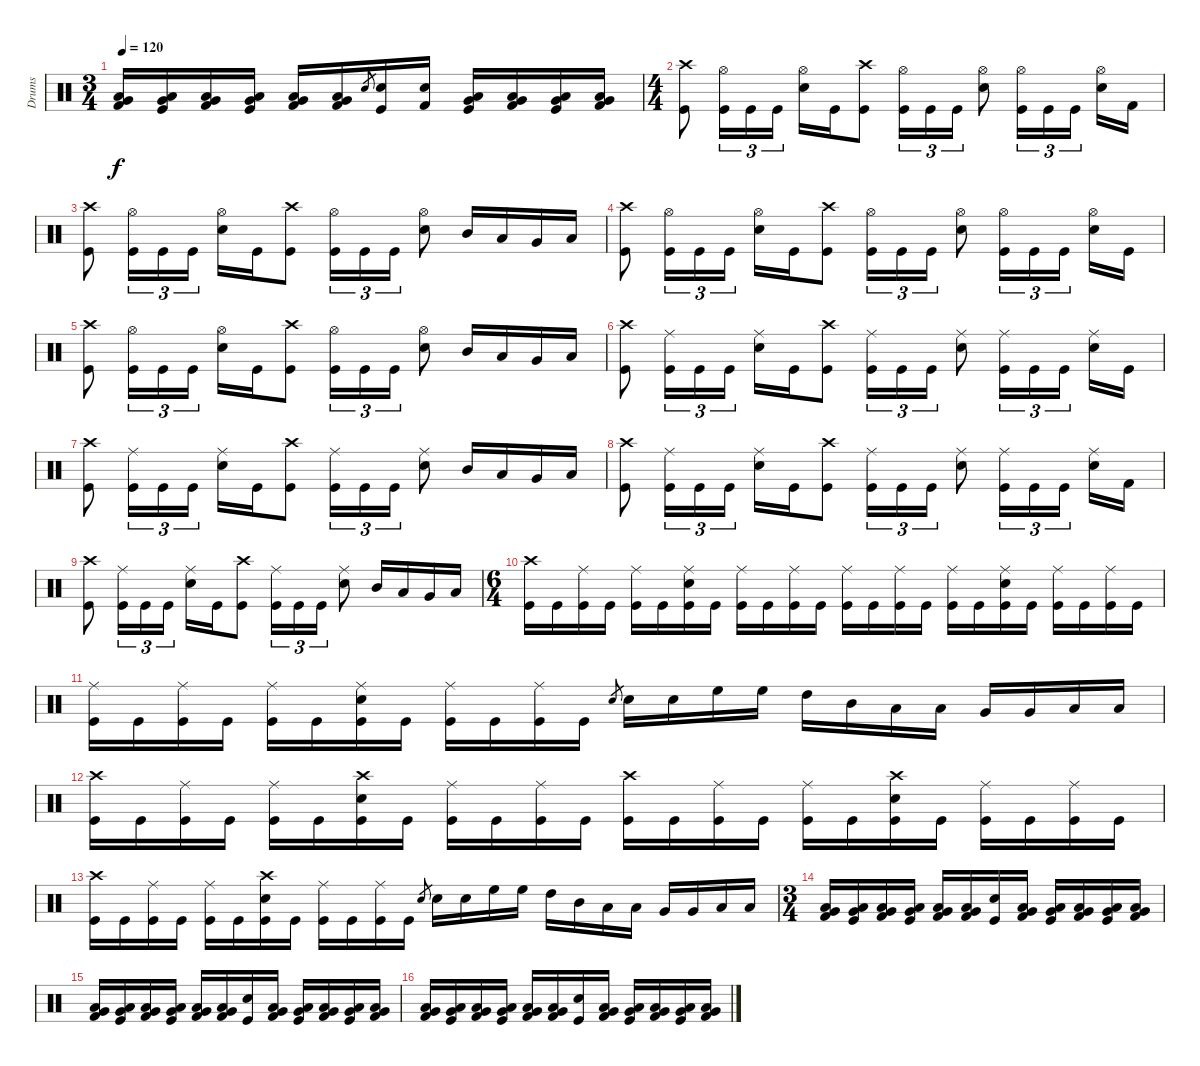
\track ("Drums" "Drums") {instrument percussion}
\staff {score}
\articulation defaults
\ts (3 4)
\tempo 120
\clef neutral
\ks c
("Kick (hit) 2" "Very Low Tom (hit)" "Low Floor Tom (hit)").16{dy f} ("Kick (hit)" "Low Tom (hit)" "Very Low Tom (hit)").16 ("Kick (hit) 2" "Very Low Tom (hit)" "Low Floor Tom (hit)").16 ("Kick (hit)" "Low Tom (hit)" "Very Low Tom (hit)").16 ("Kick (hit) 2" "Very Low Tom (hit)" "Low Floor Tom (hit)").16 ("Kick (hit) 2" "Low Tom (hit)" "Very Low Tom (hit)").16 "Electric Snare (hit)".8{gr} ("Kick (hit)" "Electric Snare (hit)").16 ("Kick (hit) 2" "Electric Snare (hit)").16 ("Kick (hit)" "Very Low Tom (hit)" "Low Floor Tom (hit)").16 ("Kick (hit) 2" "Low Tom (hit)" "Very Low Tom (hit)").16 ("Kick (hit)" "Very Low Tom (hit)" "Low Floor Tom (hit)").16 ("Kick (hit) 2" "Low Tom (hit)" "Very Low Tom (hit)").16 |
\ts (4 4)
("Kick (hit)" "Crash high (hit)").8 ("Kick (hit)" "Hi-Hat (open)").16{tu (3 2)} "Kick (hit)".16{tu (3 2)} "Kick (hit)".16{tu (3 2)} ("Hi-Hat (open)" "Electric Snare (hit)").16 "Kick (hit)".16 ("Kick (hit)" "Crash high (hit)").8 ("Kick (hit)" "Hi-Hat (open)").16{tu (3 2)} "Kick (hit)".16{tu (3 2)} "Kick (hit)".16{tu (3 2)} ("Hi-Hat (open)" "Electric Snare (hit)").8 ("Kick (hit)" "Hi-Hat (open)").16{tu (3 2)} "Kick (hit)".16{tu (3 2)} "Kick (hit)".16{tu (3 2)} ("Hi-Hat (open)" "Electric Snare (hit)").16 "Kick (hit) 2".16 |
("Kick (hit)" "Crash high (hit)").8 ("Kick (hit)" "Hi-Hat (open)").16{tu (3 2)} "Kick (hit)".16{tu (3 2)} "Kick (hit)".16{tu (3 2)} ("Hi-Hat (open)" "Electric Snare (hit)").16 "Kick (hit)".16 ("Kick (hit)" "Crash high (hit)").8 ("Kick (hit)" "Hi-Hat (open)").16{tu (3 2)} "Kick (hit)".16{tu (3 2)} "Kick (hit)".16{tu (3 2)} ("Hi-Hat (open)" "Electric Snare (hit)").8 "Mid Tom (hit)".16 "Low Tom (hit)".16 "Very Low Tom (hit)".16 "Low Floor Tom (hit)".16 |
("Kick (hit)" "Crash high (hit)").8 ("Kick (hit)" "Hi-Hat (open)").16{tu (3 2)} "Kick (hit)".16{tu (3 2)} "Kick (hit)".16{tu (3 2)} ("Hi-Hat (open)" "Electric Snare (hit)").16 "Kick (hit)".16 ("Kick (hit)" "Crash high (hit)").8 ("Kick (hit)" "Hi-Hat (open)").16{tu (3 2)} "Kick (hit)".16{tu (3 2)} "Kick (hit)".16{tu (3 2)} ("Hi-Hat (open)" "Electric Snare (hit)").8 ("Kick (hit)" "Hi-Hat (open)").16{tu (3 2)} "Kick (hit)".16{tu (3 2)} "Kick (hit)".16{tu (3 2)} ("Hi-Hat (open)" "Electric Snare (hit)").16 "Kick (hit)".16 |
("Kick (hit)" "Crash high (hit)").8 ("Kick (hit)" "Hi-Hat (open)").16{tu (3 2)} "Kick (hit)".16{tu (3 2)} "Kick (hit)".16{tu (3 2)} ("Hi-Hat (open)" "Electric Snare (hit)").16 "Kick (hit)".16 ("Kick (hit)" "Crash high (hit)").8 ("Kick (hit)" "Hi-Hat (open)").16{tu (3 2)} "Kick (hit)".16{tu (3 2)} "Kick (hit)".16{tu (3 2)} ("Hi-Hat (open)" "Electric Snare (hit)").8 "Mid Tom (hit)".16 "Low Tom (hit)".16 "Very Low Tom (hit)".16 "Low Floor Tom (hit)".16 |
("Kick (hit)" "Crash high (hit)").8 ("Kick (hit)" "Ride (middle)").16{tu (3 2)} "Kick (hit)".16{tu (3 2)} "Kick (hit)".16{tu (3 2)} ("Ride (middle)" "Electric Snare (hit)").16 "Kick (hit)".16 ("Kick (hit)" "Crash high (hit)").8 ("Kick (hit)" "Ride (middle)").16{tu (3 2)} "Kick (hit)".16{tu (3 2)} "Kick (hit)".16{tu (3 2)} ("Ride (middle)" "Electric Snare (hit)").8 ("Kick (hit)" "Ride (middle)").16{tu (3 2)} "Kick (hit)".16{tu (3 2)} "Kick (hit)".16{tu (3 2)} ("Ride (middle)" "Electric Snare (hit)").16 "Kick (hit)".16 |
("Kick (hit)" "Crash high (hit)").8 ("Kick (hit)" "Ride (middle)").16{tu (3 2)} "Kick (hit)".16{tu (3 2)} "Kick (hit)".16{tu (3 2)} ("Ride (middle)" "Electric Snare (hit)").16 "Kick (hit)".16 ("Kick (hit)" "Crash high (hit)").8 ("Kick (hit)" "Ride (middle)").16{tu (3 2)} "Kick (hit)".16{tu (3 2)} "Kick (hit)".16{tu (3 2)} ("Ride (middle)" "Electric Snare (hit)").8 "Mid Tom (hit)".16 "Low Tom (hit)".16 "Very Low Tom (hit)".16 "Low Floor Tom (hit)".16 |
("Kick (hit)" "Crash high (hit)").8 ("Kick (hit)" "Ride (middle)").16{tu (3 2)} "Kick (hit)".16{tu (3 2)} "Kick (hit)".16{tu (3 2)} ("Ride (middle)" "Electric Snare (hit)").16 "Kick (hit)".16 ("Kick (hit)" "Crash high (hit)").8 ("Kick (hit)" "Ride (middle)").16{tu (3 2)} "Kick (hit)".16{tu (3 2)} "Kick (hit)".16{tu (3 2)} ("Ride (middle)" "Electric Snare (hit)").8 ("Kick (hit)" "Ride (middle)").16{tu (3 2)} "Kick (hit)".16{tu (3 2)} "Kick (hit)".16{tu (3 2)} ("Ride (middle)" "Electric Snare (hit)").16 "Kick (hit) 2".16 |
("Kick (hit)" "Crash high (hit)").8 ("Kick (hit)" "Ride (middle)").16{tu (3 2)} "Kick (hit)".16{tu (3 2)} "Kick (hit)".16{tu (3 2)} ("Ride (middle)" "Electric Snare (hit)").16 "Kick (hit)".16 ("Kick (hit)" "Crash high (hit)").8 ("Kick (hit)" "Ride (middle)").16{tu (3 2)} "Kick (hit)".16{tu (3 2)} "Kick (hit)".16{tu (3 2)} ("Ride (middle)" "Electric Snare (hit)").8 "Mid Tom (hit)".16 "Low Tom (hit)".16 "Very Low Tom (hit)".16 "Low Floor Tom (hit)".16 |
\ts (6 4)
("Kick (hit)" "Crash high (hit)").16 "Kick (hit)".16 ("Kick (hit)" "Ride (middle)").16 "Kick (hit)".16 ("Kick (hit)" "Ride (middle)").16 "Kick (hit)".16 ("Kick (hit)" "Ride (middle)" "Electric Snare (hit)").16 "Kick (hit)".16 ("Kick (hit)" "Ride (middle)").16 "Kick (hit)".16 ("Kick (hit)" "Ride (middle)").16 "Kick (hit)".16 ("Kick (hit)" "Ride (middle)").16 "Kick (hit)".16 ("Kick (hit)" "Ride (middle)").16 "Kick (hit)".16 ("Kick (hit)" "Ride (middle)").16 "Kick (hit)".16 ("Kick (hit)" "Ride (middle)" "Electric Snare (hit)").16 "Kick (hit)".16 ("Kick (hit)" "Ride (middle)").16 "Kick (hit)".16 ("Kick (hit)" "Ride (middle)").16 "Kick (hit)".16 |
("Kick (hit)" "Ride (middle)").16 "Kick (hit)".16 ("Kick (hit)" "Ride (middle)").16 "Kick (hit)".16 ("Kick (hit)" "Ride (middle)").16 "Kick (hit)".16 ("Kick (hit)" "Ride (middle)" "Electric Snare (hit)").16 "Kick (hit)".16 ("Kick (hit)" "Ride (middle)").16 "Kick (hit)".16 ("Kick (hit)" "Ride (middle)").16 "Kick (hit)".16 "Electric Snare (hit)".8{gr} "Electric Snare (hit)".16 "Electric Snare (hit)".16 "High Floor Tom (hit)".16 "High Floor Tom (hit)".16 "High Tom (hit)".16 "Mid Tom (hit)".16 "Low Tom (hit)".16 "Low Tom (hit)".16 "Very Low Tom (hit)".16 "Very Low Tom (hit)".16 "Low Floor Tom (hit)".16 "Low Floor Tom (hit)".16 |
("Kick (hit)" "Crash high (hit)").16 "Kick (hit)".16 ("Kick (hit)" "Ride (middle)").16 "Kick (hit)".16 ("Kick (hit)" "Ride (middle)").16 "Kick (hit)".16 ("Kick (hit)" "Electric Snare (hit)" "Crash high (hit)").16 "Kick (hit)".16 ("Kick (hit)" "Ride (middle)").16 "Kick (hit)".16 ("Kick (hit)" "Ride (middle)").16 "Kick (hit)".16 ("Kick (hit)" "Crash high (hit)").16 "Kick (hit)".16 ("Kick (hit)" "Ride (middle)").16 "Kick (hit)".16 ("Kick (hit)" "Ride (middle)").16 "Kick (hit)".16 ("Kick (hit)" "Electric Snare (hit)" "Crash high (hit)").16 "Kick (hit)".16 ("Kick (hit)" "Ride (middle)").16 "Kick (hit)".16 ("Kick (hit)" "Ride (middle)").16 "Kick (hit)".16 |
("Kick (hit)" "Crash high (hit)").16 "Kick (hit)".16 ("Kick (hit)" "Ride (middle)").16 "Kick (hit)".16 ("Kick (hit)" "Ride (middle)").16 "Kick (hit)".16 ("Kick (hit)" "Electric Snare (hit)" "Crash high (hit)").16 "Kick (hit)".16 ("Kick (hit)" "Ride (middle)").16 "Kick (hit)".16 ("Kick (hit)" "Ride (middle)").16 "Kick (hit)".16 "Electric Snare (hit)".8{gr} "Electric Snare (hit)".16 "Electric Snare (hit)".16 "High Floor Tom (hit)".16 "High Floor Tom (hit)".16 "High Tom (hit)".16 "Mid Tom (hit)".16 "Low Tom (hit)".16 "Low Tom (hit)".16 "Very Low Tom (hit)".16 "Very Low Tom (hit)".16 "Low Floor Tom (hit)".16 "Low Floor Tom (hit)".16 |
\ts (3 4)
("Kick (hit) 2" "Very Low Tom (hit)" "Low Floor Tom (hit)").16 ("Kick (hit)" "Low Tom (hit)" "Very Low Tom (hit)").16 ("Kick (hit) 2" "Very Low Tom (hit)" "Low Floor Tom (hit)").16 ("Kick (hit)" "Low Tom (hit)" "Very Low Tom (hit)").16 ("Kick (hit) 2" "Very Low Tom (hit)" "Low Floor Tom (hit)").16 ("Kick (hit) 2" "Low Tom (hit)" "Very Low Tom (hit)").16 ("Kick (hit)" "Electric Snare (hit)").16 ("Kick (hit) 2" "Low Tom (hit)" "Very Low Tom (hit)").16 ("Kick (hit)" "Very Low Tom (hit)" "Low Floor Tom (hit)").16 ("Kick (hit) 2" "Low Tom (hit)" "Very Low Tom (hit)").16 ("Kick (hit)" "Very Low Tom (hit)" "Low Floor Tom (hit)").16 ("Kick (hit) 2" "Low Tom (hit)" "Very Low Tom (hit)").16 |
("Kick (hit) 2" "Very Low Tom (hit)" "Low Floor Tom (hit)").16 ("Kick (hit)" "Low Tom (hit)" "Very Low Tom (hit)").16 ("Kick (hit) 2" "Very Low Tom (hit)" "Low Floor Tom (hit)").16 ("Kick (hit)" "Low Tom (hit)" "Very Low Tom (hit)").16 ("Kick (hit) 2" "Very Low Tom (hit)" "Low Floor Tom (hit)").16 ("Kick (hit) 2" "Low Tom (hit)" "Very Low Tom (hit)").16 ("Kick (hit)" "Electric Snare (hit)").16 ("Kick (hit) 2" "Low Tom (hit)" "Very Low Tom (hit)").16 ("Kick (hit)" "Very Low Tom (hit)" "Low Floor Tom (hit)").16 ("Kick (hit) 2" "Low Tom (hit)" "Very Low Tom (hit)").16 ("Kick (hit)" "Very Low Tom (hit)" "Low Floor Tom (hit)").16 ("Kick (hit) 2" "Low Tom (hit)" "Very Low Tom (hit)").16 |
("Kick (hit) 2" "Very Low Tom (hit)" "Low Floor Tom (hit)").16 ("Kick (hit)" "Low Tom (hit)" "Very Low Tom (hit)").16 ("Kick (hit) 2" "Very Low Tom (hit)" "Low Floor Tom (hit)").16 ("Kick (hit)" "Low Tom (hit)" "Very Low Tom (hit)").16 ("Kick (hit) 2" "Very Low Tom (hit)" "Low Floor Tom (hit)").16 ("Kick (hit) 2" "Low Tom (hit)" "Very Low Tom (hit)").16 ("Kick (hit)" "Electric Snare (hit)").16 ("Kick (hit) 2" "Low Tom (hit)" "Very Low Tom (hit)").16 ("Kick (hit)" "Very Low Tom (hit)" "Low Floor Tom (hit)").16 ("Kick (hit) 2" "Low Tom (hit)" "Very Low Tom (hit)").16 ("Kick (hit)" "Very Low Tom (hit)" "Low Floor Tom (hit)").16 ("Kick (hit) 2" "Low Tom (hit)" "Very Low Tom (hit)").16
